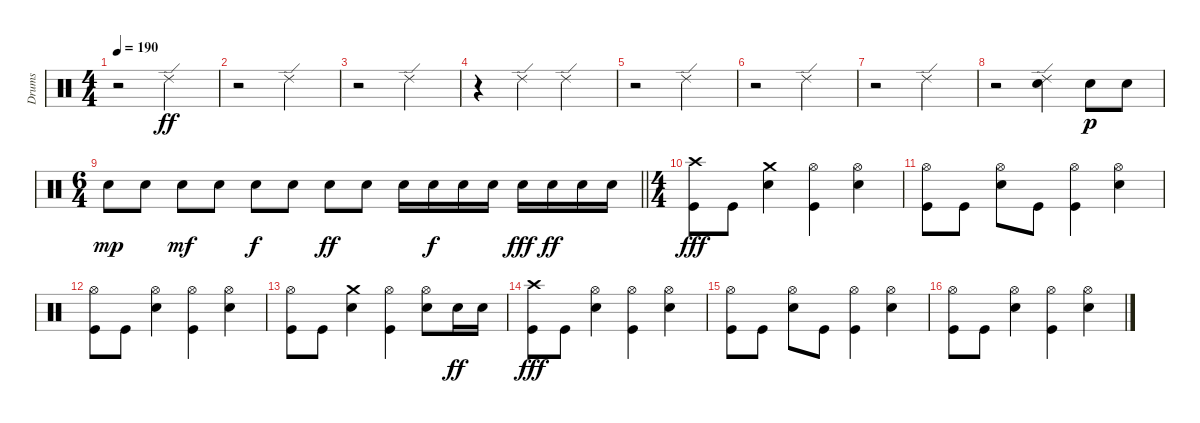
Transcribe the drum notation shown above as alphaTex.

\track ("Drums" "Drums") {instrument percussion}
\staff {score}
\articulation defaults
\ts (4 4)
\tempo 190
\clef neutral
\ks c
r.2{dy ff} "Ride (edge) 2".2 |
r.2 "Ride (edge) 2".2 |
r.2 "Ride (edge) 2".2 |
r.4 "Ride (edge) 2".4 "Ride (edge) 2".2 |
r.2 "Ride (edge) 2".2 |
r.2 "Ride (edge) 2".2 |
r.2 "Ride (edge) 2".2 |
r.2 ("Ride (edge) 2" "Snare (hit) 2").4 "Snare (hit) 2".8{dy p} "Snare (hit) 2".8 |
\ts (6 4)
\barLineRight lightlight "Snare (hit) 2".8{dy mp} "Snare (hit) 2".8 "Snare (hit) 2".8{dy mf} "Snare (hit) 2".8 "Snare (hit) 2".8{dy f} "Snare (hit) 2".8 "Snare (hit) 2".8{dy ff} "Snare (hit) 2".8 "Snare (hit) 2".16 "Snare (hit) 2".16{dy f} "Snare (hit) 2".16 "Snare (hit) 2".16 "Snare (hit) 2".16{dy fff} "Snare (hit) 2".16{dy ff} "Snare (hit) 2".16 "Snare (hit) 2".16
|
\ts (4 4)
("Crash high (hit)" "Kick (hit)").8{dy fff} "Kick (hit)".8 ("Crash medium (hit)" "Snare (hit) 2").4 ("Hi-Hat (open)" "Kick (hit)").4 ("Hi-Hat (open)" "Snare (hit) 2").4 |
("Hi-Hat (open)" "Kick (hit)").8 "Kick (hit)".8 ("Hi-Hat (open)" "Snare (hit) 2").8 "Kick (hit)".8 ("Hi-Hat (open)" "Kick (hit)").4 ("Hi-Hat (open)" "Snare (hit) 2").4 |
("Hi-Hat (open)" "Kick (hit)").8 "Kick (hit)".8 ("Hi-Hat (open)" "Snare (hit) 2").4 ("Hi-Hat (open)" "Kick (hit)").4 ("Hi-Hat (open)" "Snare (hit) 2").4 |
("Hi-Hat (open)" "Kick (hit)").8 "Kick (hit)".8 ("Crash medium (hit)" "Snare (hit) 2").4 ("Hi-Hat (open)" "Kick (hit)").4 ("Hi-Hat (open)" "Snare (hit) 2").8 "Snare (hit) 2".16{dy ff} "Snare (hit) 2".16 |
("Crash high (hit)" "Kick (hit)").8{dy fff} "Kick (hit)".8 ("Hi-Hat (open)" "Snare (hit) 2").4 ("Hi-Hat (open)" "Kick (hit)").4 ("Hi-Hat (open)" "Snare (hit) 2").4 |
("Hi-Hat (open)" "Kick (hit)").8 "Kick (hit)".8 ("Hi-Hat (open)" "Snare (hit) 2").8 "Kick (hit)".8 ("Hi-Hat (open)" "Kick (hit)").4 ("Hi-Hat (open)" "Snare (hit) 2").4 |
("Hi-Hat (open)" "Kick (hit)").8 "Kick (hit)".8 ("Hi-Hat (open)" "Snare (hit) 2").4 ("Hi-Hat (open)" "Kick (hit)").4 ("Hi-Hat (open)" "Snare (hit) 2").4
